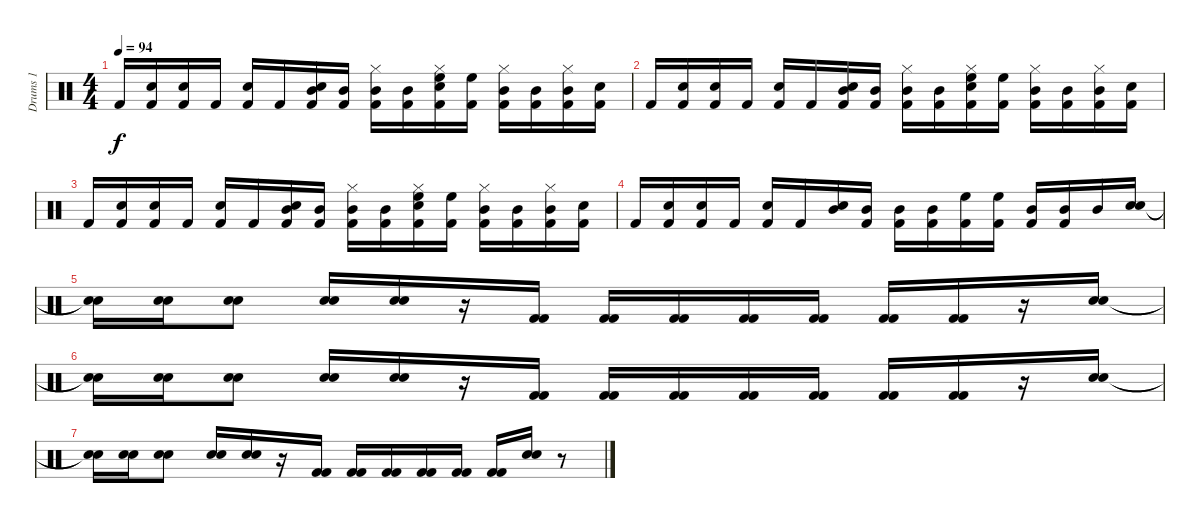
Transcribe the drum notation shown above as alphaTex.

\track ("Drums 1" "Drums 1") {instrument percussion}
\staff {score}
\articulation defaults
\ts (4 4)
\tempo 94
\clef neutral
\ks c "Kick (hit) 2".16{dy f}
("Kick (hit) 2" "Electric Snare (hit)").16 ("Snare (hit) 2" "Kick (hit) 2").16 "Kick (hit) 2".16 ("Kick (hit) 2" "Snare (hit) 2").16 "Kick (hit) 2".16 ("Mid Tom (hit)" "Kick (hit) 2" "Snare (hit) 2").16 ("Mid Tom (hit)" "Kick (hit) 2").16 ("Mid Tom (hit)" "Hi-Hat (closed)" "Kick (hit) 2").16 ("Mid Tom (hit)" "Kick (hit) 2").16 ("High Floor Tom (hit)" "Hi-Hat (closed)" "Kick (hit) 2" "Electric Snare (hit)").16 ("High Floor Tom (hit)" "Kick (hit) 2").16 ("Mid Tom (hit)" "Hi-Hat (closed)" "Kick (hit) 2").16 ("Mid Tom (hit)" "Kick (hit) 2").16 ("Mid Tom (hit)" "Hi-Hat (closed)" "Kick (hit) 2").16 ("Kick (hit) 2" "Electric Snare (hit)").16 |
"Kick (hit) 2".16 ("Kick (hit) 2" "Electric Snare (hit)").16 ("Snare (hit) 2" "Kick (hit) 2").16 "Kick (hit) 2".16 ("Kick (hit) 2" "Snare (hit) 2").16 "Kick (hit) 2".16 ("Mid Tom (hit)" "Kick (hit) 2" "Snare (hit) 2").16 ("Mid Tom (hit)" "Kick (hit) 2").16 ("Mid Tom (hit)" "Hi-Hat (closed)" "Kick (hit) 2").16 ("Mid Tom (hit)" "Kick (hit) 2").16 ("High Floor Tom (hit)" "Hi-Hat (closed)" "Kick (hit) 2" "Electric Snare (hit)").16 ("High Floor Tom (hit)" "Kick (hit) 2").16 ("Mid Tom (hit)" "Hi-Hat (closed)" "Kick (hit) 2").16 ("Mid Tom (hit)" "Kick (hit) 2").16 ("Mid Tom (hit)" "Hi-Hat (closed)" "Kick (hit) 2").16 ("Kick (hit) 2" "Electric Snare (hit)").16 |
"Kick (hit) 2".16 ("Kick (hit) 2" "Electric Snare (hit)").16 ("Snare (hit) 2" "Kick (hit) 2").16 "Kick (hit) 2".16 ("Kick (hit) 2" "Snare (hit) 2").16 "Kick (hit) 2".16 ("Mid Tom (hit)" "Kick (hit) 2" "Snare (hit) 2").16 ("Mid Tom (hit)" "Kick (hit) 2").16 ("Mid Tom (hit)" "Hi-Hat (closed)" "Kick (hit) 2").16 ("Mid Tom (hit)" "Kick (hit) 2").16 ("High Floor Tom (hit)" "Hi-Hat (closed)" "Kick (hit) 2" "Electric Snare (hit)").16 ("High Floor Tom (hit)" "Kick (hit) 2").16 ("Mid Tom (hit)" "Hi-Hat (closed)" "Kick (hit) 2").16 ("Mid Tom (hit)" "Kick (hit) 2").16 ("Mid Tom (hit)" "Hi-Hat (closed)" "Kick (hit) 2").16 ("Kick (hit) 2" "Electric Snare (hit)").16 |
"Kick (hit) 2".16 ("Kick (hit) 2" "Electric Snare (hit)").16 ("Snare (hit) 2" "Kick (hit) 2").16 "Kick (hit) 2".16 ("Kick (hit) 2" "Snare (hit) 2").16 "Kick (hit) 2".16 ("Mid Tom (hit)" "Snare (hit) 2").16 ("Mid Tom (hit)" "Kick (hit) 2").16 ("Mid Tom (hit)" "Kick (hit) 2").16 ("Mid Tom (hit)" "Kick (hit) 2").16 ("High Floor Tom (hit)" "Kick (hit) 2").16 ("High Floor Tom (hit)" "Kick (hit) 2").16 ("Mid Tom (hit)" "Kick (hit) 2").16 ("Mid Tom (hit)" "Kick (hit) 2").16 "Mid Tom (hit)".16 ("Snare (hit) 2" "Snare (hit) 2").16 |
("Snare (hit)"{t} "Snare (hit)"{t}).16 ("Snare (hit) 2" "Snare (hit) 2").16 ("Electric Snare (hit)" "Snare (hit) 2").8 ("Snare (hit) 2" "Snare (hit) 2").16 ("Electric Snare (hit)" "Snare (hit) 2").16 r.16 ("Kick (hit) 2" "Kick (hit) 2").16 ("Kick (hit) 2" "Kick (hit) 2").16 ("Kick (hit) 2" "Kick (hit) 2").16 ("Kick (hit) 2" "Kick (hit) 2").16 ("Kick (hit) 2" "Kick (hit) 2").16 ("Kick (hit) 2" "Kick (hit) 2").16 ("Kick (hit) 2" "Kick (hit) 2").16 r.16 ("Snare (hit) 2" "Snare (hit) 2").16 |
("Snare (hit)"{t} "Snare (hit)"{t}).16 ("Snare (hit) 2" "Snare (hit) 2").16 ("Electric Snare (hit)" "Snare (hit) 2").8 ("Snare (hit) 2" "Snare (hit) 2").16 ("Electric Snare (hit)" "Snare (hit) 2").16 r.16 ("Kick (hit) 2" "Kick (hit) 2").16 ("Kick (hit) 2" "Kick (hit) 2").16 ("Kick (hit) 2" "Kick (hit) 2").16 ("Kick (hit) 2" "Kick (hit) 2").16 ("Kick (hit) 2" "Kick (hit) 2").16 ("Kick (hit) 2" "Kick (hit) 2").16 ("Kick (hit) 2" "Kick (hit) 2").16 r.16 ("Snare (hit) 2" "Snare (hit) 2").16 |
("Snare (hit)"{t} "Snare (hit)"{t}).16 ("Snare (hit) 2" "Snare (hit) 2").16 ("Electric Snare (hit)" "Snare (hit) 2").8 ("Snare (hit) 2" "Snare (hit) 2").16 ("Electric Snare (hit)" "Snare (hit) 2").16 r.16 ("Kick (hit) 2" "Kick (hit) 2").16 ("Kick (hit) 2" "Kick (hit) 2").16 ("Kick (hit) 2" "Kick (hit) 2").16 ("Kick (hit) 2" "Kick (hit) 2").16 ("Kick (hit) 2" "Kick (hit) 2").16 ("Kick (hit) 2" "Kick (hit) 2").16 ("Electric Snare (hit)" "Snare (hit) 2").16 r.8
